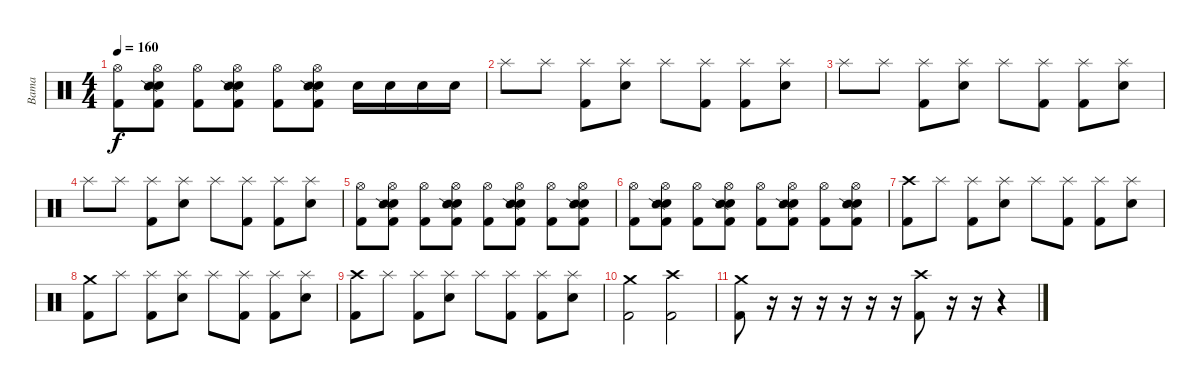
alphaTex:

\track ("Bama" "Bama") {instrument percussion}
\staff {score}
\articulation defaults
\ts (4 4)
\tempo 160
\clef neutral
\ks c
("Hi-Hat (open)" "Kick (hit) 2").8{dy f} ("Hi-Hat (open)" "Electric Snare (hit)" "Snare (side stick) 2" "Kick (hit) 2").8 ("Hi-Hat (open)" "Kick (hit) 2").8 ("Hi-Hat (open)" "Electric Snare (hit)" "Snare (side stick) 2" "Kick (hit) 2").8 ("Hi-Hat (open)" "Kick (hit) 2").8 ("Hi-Hat (open)" "Electric Snare (hit)" "Snare (side stick) 2" "Kick (hit) 2").8 "Electric Snare (hit)".16 "Electric Snare (hit)".16 "Electric Snare (hit)".16 "Electric Snare (hit)".16 |
"Splash (hit)".8 "Splash (hit)".8 ("Splash (hit)" "Kick (hit) 2").8 ("Splash (hit)" "Electric Snare (hit)").8 "Splash (hit)".8 ("Splash (hit)" "Kick (hit) 2").8 ("Splash (hit)" "Kick (hit) 2").8 ("Splash (hit)" "Electric Snare (hit)").8 |
"Splash (hit)".8 "Splash (hit)".8 ("Splash (hit)" "Kick (hit) 2").8 ("Splash (hit)" "Electric Snare (hit)").8 "Splash (hit)".8 ("Splash (hit)" "Kick (hit) 2").8 ("Splash (hit)" "Kick (hit) 2").8 ("Splash (hit)" "Electric Snare (hit)").8 |
"Splash (hit)".8 "Splash (hit)".8 ("Splash (hit)" "Kick (hit) 2").8 ("Splash (hit)" "Electric Snare (hit)").8 "Splash (hit)".8 ("Splash (hit)" "Kick (hit) 2").8 ("Splash (hit)" "Kick (hit) 2").8 ("Splash (hit)" "Electric Snare (hit)").8 |
("Hi-Hat (open)" "Kick (hit) 2").8 ("Hi-Hat (open)" "Electric Snare (hit)" "Snare (side stick) 2" "Kick (hit) 2").8 ("Hi-Hat (open)" "Kick (hit) 2").8 ("Hi-Hat (open)" "Electric Snare (hit)" "Snare (side stick) 2" "Kick (hit) 2").8 ("Hi-Hat (open)" "Kick (hit) 2").8 ("Hi-Hat (open)" "Electric Snare (hit)" "Snare (side stick) 2" "Kick (hit) 2").8 ("Hi-Hat (open)" "Kick (hit) 2").8 ("Hi-Hat (open)" "Electric Snare (hit)" "Snare (side stick) 2" "Kick (hit) 2").8 |
("Hi-Hat (open)" "Kick (hit) 2").8 ("Hi-Hat (open)" "Electric Snare (hit)" "Snare (side stick) 2" "Kick (hit) 2").8 ("Hi-Hat (open)" "Kick (hit) 2").8 ("Hi-Hat (open)" "Electric Snare (hit)" "Snare (side stick) 2" "Kick (hit) 2").8 ("Hi-Hat (open)" "Kick (hit) 2").8 ("Hi-Hat (open)" "Electric Snare (hit)" "Snare (side stick) 2" "Kick (hit) 2").8 ("Hi-Hat (open)" "Kick (hit) 2").8 ("Hi-Hat (open)" "Electric Snare (hit)" "Snare (side stick) 2" "Kick (hit) 2").8 |
("Crash high (hit)" "Kick (hit) 2").8 "Splash (hit)".8 ("Splash (hit)" "Kick (hit) 2").8 ("Splash (hit)" "Electric Snare (hit)").8 "Splash (hit)".8 ("Splash (hit)" "Kick (hit) 2").8 ("Splash (hit)" "Kick (hit) 2").8 ("Splash (hit)" "Electric Snare (hit)").8 |
("Crash medium (hit)" "Kick (hit) 2").8 "Splash (hit)".8 ("Splash (hit)" "Kick (hit) 2").8 ("Splash (hit)" "Electric Snare (hit)").8 "Splash (hit)".8 ("Splash (hit)" "Kick (hit) 2").8 ("Splash (hit)" "Kick (hit) 2").8 ("Splash (hit)" "Electric Snare (hit)").8 |
("Crash high (hit)" "Kick (hit) 2").8 "Splash (hit)".8 ("Splash (hit)" "Kick (hit) 2").8 ("Splash (hit)" "Electric Snare (hit)").8 "Splash (hit)".8 ("Splash (hit)" "Kick (hit) 2").8 ("Splash (hit)" "Kick (hit) 2").8 ("Splash (hit)" "Electric Snare (hit)").8 |
("Crash medium (hit)" "Kick (hit) 2").2 ("Crash high (hit)" "Kick (hit) 2").2 |
("Crash medium (hit)" "Kick (hit) 2").8 r.16 r.16 r.16 r.16 r.16 r.16 ("Crash high (hit)" "Kick (hit) 2").8 r.16 r.16 r.4
